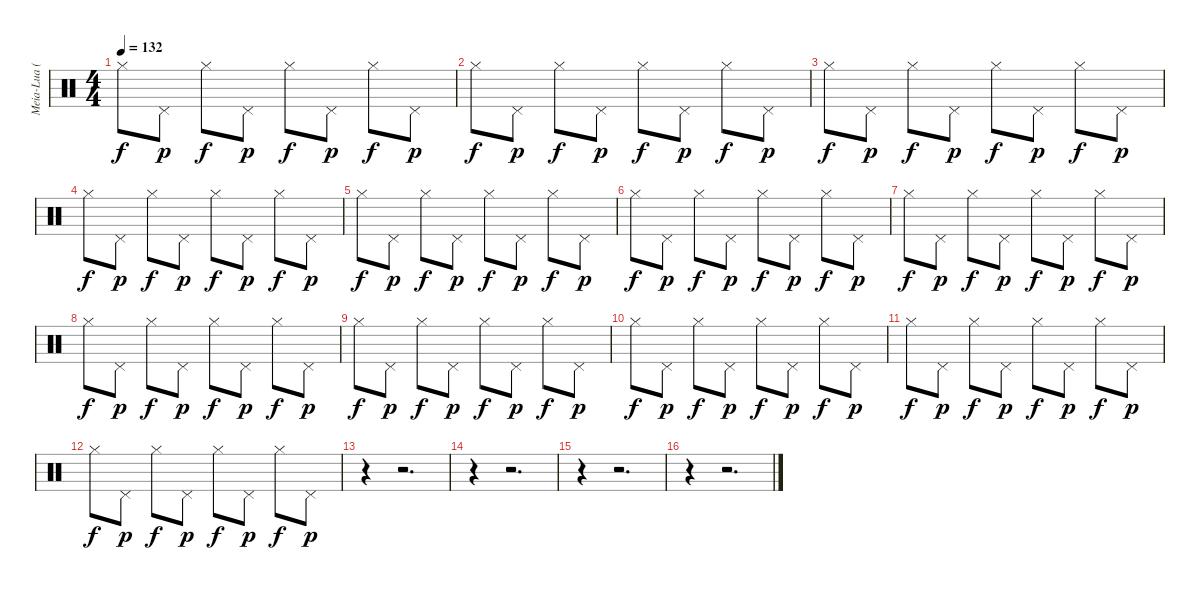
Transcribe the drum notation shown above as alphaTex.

\track ("Meia-Lua (hehe)" "Meia-Lua (") {instrument percussion}
\staff {score}
\articulation defaults
\ts (4 4)
\tempo 132
\clef neutral
\ks c "Hi-Hat (closed)".8{dy f} "Pedal Hi-Hat (hit)".8{dy p} "Hi-Hat (closed)".8{dy f} "Pedal Hi-Hat (hit)".8{dy p} "Hi-Hat (closed)".8{dy f} "Pedal Hi-Hat (hit)".8{dy p} "Hi-Hat (closed)".8{dy f} "Pedal Hi-Hat (hit)".8{dy p}
|
"Hi-Hat (closed)".8{dy f} "Pedal Hi-Hat (hit)".8{dy p} "Hi-Hat (closed)".8{dy f} "Pedal Hi-Hat (hit)".8{dy p} "Hi-Hat (closed)".8{dy f} "Pedal Hi-Hat (hit)".8{dy p} "Hi-Hat (closed)".8{dy f} "Pedal Hi-Hat (hit)".8{dy p} |
"Hi-Hat (closed)".8{dy f} "Pedal Hi-Hat (hit)".8{dy p} "Hi-Hat (closed)".8{dy f} "Pedal Hi-Hat (hit)".8{dy p} "Hi-Hat (closed)".8{dy f} "Pedal Hi-Hat (hit)".8{dy p} "Hi-Hat (closed)".8{dy f} "Pedal Hi-Hat (hit)".8{dy p} |
"Hi-Hat (closed)".8{dy f} "Pedal Hi-Hat (hit)".8{dy p} "Hi-Hat (closed)".8{dy f} "Pedal Hi-Hat (hit)".8{dy p} "Hi-Hat (closed)".8{dy f} "Pedal Hi-Hat (hit)".8{dy p} "Hi-Hat (closed)".8{dy f} "Pedal Hi-Hat (hit)".8{dy p} |
"Hi-Hat (closed)".8{dy f} "Pedal Hi-Hat (hit)".8{dy p} "Hi-Hat (closed)".8{dy f} "Pedal Hi-Hat (hit)".8{dy p} "Hi-Hat (closed)".8{dy f} "Pedal Hi-Hat (hit)".8{dy p} "Hi-Hat (closed)".8{dy f} "Pedal Hi-Hat (hit)".8{dy p} |
"Hi-Hat (closed)".8{dy f} "Pedal Hi-Hat (hit)".8{dy p} "Hi-Hat (closed)".8{dy f} "Pedal Hi-Hat (hit)".8{dy p} "Hi-Hat (closed)".8{dy f} "Pedal Hi-Hat (hit)".8{dy p} "Hi-Hat (closed)".8{dy f} "Pedal Hi-Hat (hit)".8{dy p} |
"Hi-Hat (closed)".8{dy f} "Pedal Hi-Hat (hit)".8{dy p} "Hi-Hat (closed)".8{dy f} "Pedal Hi-Hat (hit)".8{dy p} "Hi-Hat (closed)".8{dy f} "Pedal Hi-Hat (hit)".8{dy p} "Hi-Hat (closed)".8{dy f} "Pedal Hi-Hat (hit)".8{dy p} |
"Hi-Hat (closed)".8{dy f} "Pedal Hi-Hat (hit)".8{dy p} "Hi-Hat (closed)".8{dy f} "Pedal Hi-Hat (hit)".8{dy p} "Hi-Hat (closed)".8{dy f} "Pedal Hi-Hat (hit)".8{dy p} "Hi-Hat (closed)".8{dy f} "Pedal Hi-Hat (hit)".8{dy p} |
"Hi-Hat (closed)".8{dy f} "Pedal Hi-Hat (hit)".8{dy p} "Hi-Hat (closed)".8{dy f} "Pedal Hi-Hat (hit)".8{dy p} "Hi-Hat (closed)".8{dy f} "Pedal Hi-Hat (hit)".8{dy p} "Hi-Hat (closed)".8{dy f} "Pedal Hi-Hat (hit)".8{dy p} |
"Hi-Hat (closed)".8{dy f} "Pedal Hi-Hat (hit)".8{dy p} "Hi-Hat (closed)".8{dy f} "Pedal Hi-Hat (hit)".8{dy p} "Hi-Hat (closed)".8{dy f} "Pedal Hi-Hat (hit)".8{dy p} "Hi-Hat (closed)".8{dy f} "Pedal Hi-Hat (hit)".8{dy p} |
"Hi-Hat (closed)".8{dy f} "Pedal Hi-Hat (hit)".8{dy p} "Hi-Hat (closed)".8{dy f} "Pedal Hi-Hat (hit)".8{dy p} "Hi-Hat (closed)".8{dy f} "Pedal Hi-Hat (hit)".8{dy p} "Hi-Hat (closed)".8{dy f} "Pedal Hi-Hat (hit)".8{dy p} |
"Hi-Hat (closed)".8{dy f} "Pedal Hi-Hat (hit)".8{dy p} "Hi-Hat (closed)".8{dy f} "Pedal Hi-Hat (hit)".8{dy p} "Hi-Hat (closed)".8{dy f} "Pedal Hi-Hat (hit)".8{dy p} "Hi-Hat (closed)".8{dy f} "Pedal Hi-Hat (hit)".8{dy p} |
r.4 r.2{d} |
r.4 r.2{d} |
r.4 r.2{d} |
r.4 r.2{d}
